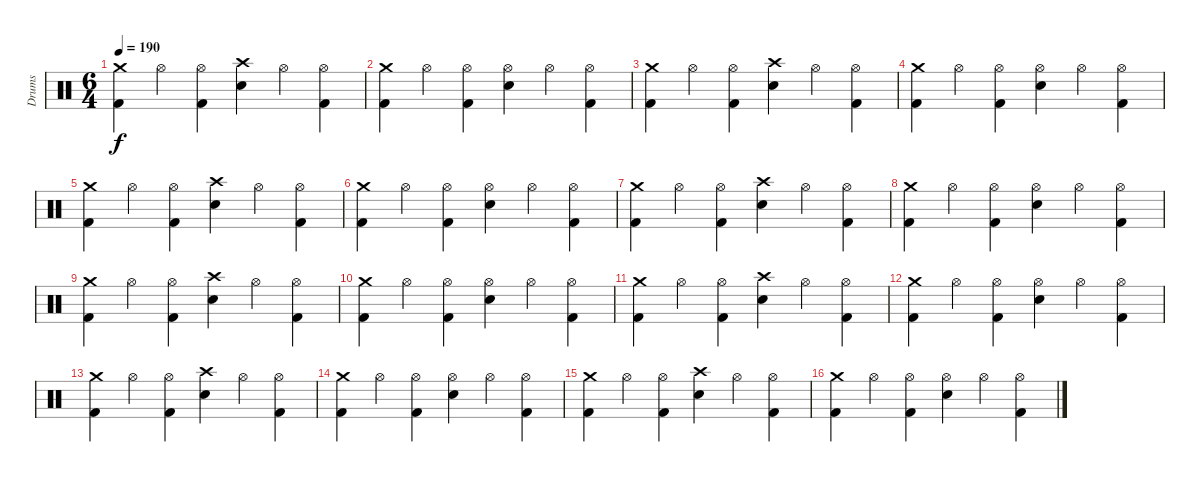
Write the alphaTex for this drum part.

\track ("Drums" "Drums") {instrument percussion}
\staff {score}
\articulation defaults
\ts (6 4)
\tempo 190
\clef neutral
\ks c
("Crash medium (hit)" "Kick (hit) 2").4{dy f} "Hi-Hat (open)".4 ("Hi-Hat (open)" "Kick (hit) 2").4 ("Crash high (hit)" "Electric Snare (hit)").4 "Hi-Hat (open)".4 ("Hi-Hat (open)" "Kick (hit) 2").4 |
("Crash medium (hit)" "Kick (hit) 2").4 "Hi-Hat (open)".4 ("Hi-Hat (open)" "Kick (hit) 2").4 ("Hi-Hat (open)" "Electric Snare (hit)").4 "Hi-Hat (open)".4 ("Hi-Hat (open)" "Kick (hit) 2").4 |
("Crash medium (hit)" "Kick (hit) 2").4 "Hi-Hat (open)".4 ("Hi-Hat (open)" "Kick (hit) 2").4 ("Crash high (hit)" "Electric Snare (hit)").4 "Hi-Hat (open)".4 ("Hi-Hat (open)" "Kick (hit) 2").4 |
("Crash medium (hit)" "Kick (hit) 2").4 "Hi-Hat (open)".4 ("Hi-Hat (open)" "Kick (hit) 2").4 ("Hi-Hat (open)" "Electric Snare (hit)").4 "Hi-Hat (open)".4 ("Hi-Hat (open)" "Kick (hit) 2").4 |
("Crash medium (hit)" "Kick (hit) 2").4 "Hi-Hat (open)".4 ("Hi-Hat (open)" "Kick (hit) 2").4 ("Crash high (hit)" "Electric Snare (hit)").4 "Hi-Hat (open)".4 ("Hi-Hat (open)" "Kick (hit) 2").4 |
("Crash medium (hit)" "Kick (hit) 2").4 "Hi-Hat (open)".4 ("Hi-Hat (open)" "Kick (hit) 2").4 ("Hi-Hat (open)" "Electric Snare (hit)").4 "Hi-Hat (open)".4 ("Hi-Hat (open)" "Kick (hit) 2").4 |
("Crash medium (hit)" "Kick (hit) 2").4 "Hi-Hat (open)".4 ("Hi-Hat (open)" "Kick (hit) 2").4 ("Crash high (hit)" "Electric Snare (hit)").4 "Hi-Hat (open)".4 ("Hi-Hat (open)" "Kick (hit) 2").4 |
("Crash medium (hit)" "Kick (hit) 2").4 "Hi-Hat (open)".4 ("Hi-Hat (open)" "Kick (hit) 2").4 ("Hi-Hat (open)" "Electric Snare (hit)").4 "Hi-Hat (open)".4 ("Hi-Hat (open)" "Kick (hit) 2").4 |
("Crash medium (hit)" "Kick (hit) 2").4 "Hi-Hat (open)".4 ("Hi-Hat (open)" "Kick (hit) 2").4 ("Crash high (hit)" "Electric Snare (hit)").4 "Hi-Hat (open)".4 ("Hi-Hat (open)" "Kick (hit) 2").4 |
("Crash medium (hit)" "Kick (hit) 2").4 "Hi-Hat (open)".4 ("Hi-Hat (open)" "Kick (hit) 2").4 ("Hi-Hat (open)" "Electric Snare (hit)").4 "Hi-Hat (open)".4 ("Hi-Hat (open)" "Kick (hit) 2").4 |
("Crash medium (hit)" "Kick (hit) 2").4 "Hi-Hat (open)".4 ("Hi-Hat (open)" "Kick (hit) 2").4 ("Crash high (hit)" "Electric Snare (hit)").4 "Hi-Hat (open)".4 ("Hi-Hat (open)" "Kick (hit) 2").4 |
("Crash medium (hit)" "Kick (hit) 2").4 "Hi-Hat (open)".4 ("Hi-Hat (open)" "Kick (hit) 2").4 ("Hi-Hat (open)" "Electric Snare (hit)").4 "Hi-Hat (open)".4 ("Hi-Hat (open)" "Kick (hit) 2").4 |
("Crash medium (hit)" "Kick (hit) 2").4 "Hi-Hat (open)".4 ("Hi-Hat (open)" "Kick (hit) 2").4 ("Crash high (hit)" "Electric Snare (hit)").4 "Hi-Hat (open)".4 ("Hi-Hat (open)" "Kick (hit) 2").4 |
("Crash medium (hit)" "Kick (hit) 2").4 "Hi-Hat (open)".4 ("Hi-Hat (open)" "Kick (hit) 2").4 ("Hi-Hat (open)" "Electric Snare (hit)").4 "Hi-Hat (open)".4 ("Hi-Hat (open)" "Kick (hit) 2").4 |
("Crash medium (hit)" "Kick (hit) 2").4 "Hi-Hat (open)".4 ("Hi-Hat (open)" "Kick (hit) 2").4 ("Crash high (hit)" "Electric Snare (hit)").4 "Hi-Hat (open)".4 ("Hi-Hat (open)" "Kick (hit) 2").4 |
("Crash medium (hit)" "Kick (hit) 2").4 "Hi-Hat (open)".4 ("Hi-Hat (open)" "Kick (hit) 2").4 ("Hi-Hat (open)" "Electric Snare (hit)").4 "Hi-Hat (open)".4 ("Hi-Hat (open)" "Kick (hit) 2").4
